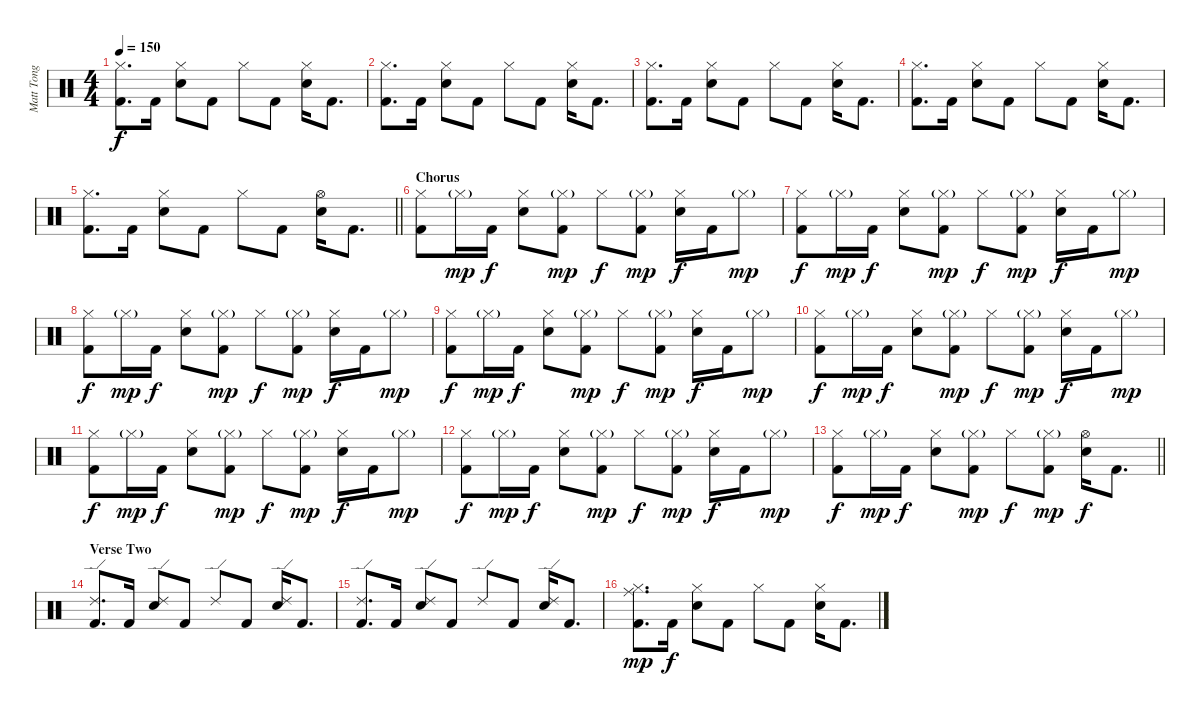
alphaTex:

\track ("Matt Tong" "Matt Tong") {instrument percussion}
\staff {score}
\articulation defaults
\ts (4 4)
\tempo 150
\clef neutral
\ks c
("Hi-Hat (closed)" "Kick (hit) 2").8{d dy f} "Kick (hit) 2".16 ("Hi-Hat (closed)" "Electric Snare (hit)").8 "Kick (hit) 2".8 "Hi-Hat (closed)".8 "Kick (hit) 2".8 ("Hi-Hat (closed)" "Electric Snare (hit)").16 "Kick (hit) 2".8{d} |
("Hi-Hat (closed)" "Kick (hit) 2").8{d} "Kick (hit) 2".16 ("Hi-Hat (closed)" "Electric Snare (hit)").8 "Kick (hit) 2".8 "Hi-Hat (closed)".8 "Kick (hit) 2".8 ("Hi-Hat (closed)" "Electric Snare (hit)").16 "Kick (hit) 2".8{d} |
("Hi-Hat (closed)" "Kick (hit) 2").8{d} "Kick (hit) 2".16 ("Hi-Hat (closed)" "Electric Snare (hit)").8 "Kick (hit) 2".8 "Hi-Hat (closed)".8 "Kick (hit) 2".8 ("Hi-Hat (closed)" "Electric Snare (hit)").16 "Kick (hit) 2".8{d} |
("Hi-Hat (closed)" "Kick (hit) 2").8{d} "Kick (hit) 2".16 ("Hi-Hat (closed)" "Electric Snare (hit)").8 "Kick (hit) 2".8 "Hi-Hat (closed)".8 "Kick (hit) 2".8 ("Hi-Hat (closed)" "Electric Snare (hit)").16 "Kick (hit) 2".8{d} |
\barLineRight lightlight
("Hi-Hat (closed)" "Kick (hit) 2").8{d} "Kick (hit) 2".16 ("Hi-Hat (closed)" "Electric Snare (hit)").8 "Kick (hit) 2".8 "Hi-Hat (closed)".8 "Kick (hit) 2".8 ("Hi-Hat (open)" "Electric Snare (hit)").16 "Kick (hit) 2".8{d} |
\section ("" "Chorus")
("Hi-Hat (closed)" "Kick (hit) 2").8 "Hi-Hat (closed)"{g}.16{dy mp} "Kick (hit) 2".16{dy f} ("Hi-Hat (closed)" "Electric Snare (hit)").8 ("Hi-Hat (closed)"{g} "Kick (hit) 2").8{dy mp} "Hi-Hat (closed)".8{dy f} ("Hi-Hat (closed)"{g} "Kick (hit) 2").8{dy mp} ("Hi-Hat (closed)" "Electric Snare (hit)").16{dy f} "Kick (hit) 2".16 "Hi-Hat (closed)"{g}.8{dy mp} |
("Hi-Hat (closed)" "Kick (hit) 2").8{dy f} "Hi-Hat (closed)"{g}.16{dy mp} "Kick (hit) 2".16{dy f} ("Hi-Hat (closed)" "Electric Snare (hit)").8 ("Hi-Hat (closed)"{g} "Kick (hit) 2").8{dy mp} "Hi-Hat (closed)".8{dy f} ("Hi-Hat (closed)"{g} "Kick (hit) 2").8{dy mp} ("Hi-Hat (closed)" "Electric Snare (hit)").16{dy f} "Kick (hit) 2".16 "Hi-Hat (closed)"{g}.8{dy mp} |
("Hi-Hat (closed)" "Kick (hit) 2").8{dy f} "Hi-Hat (closed)"{g}.16{dy mp} "Kick (hit) 2".16{dy f} ("Hi-Hat (closed)" "Electric Snare (hit)").8 ("Hi-Hat (closed)"{g} "Kick (hit) 2").8{dy mp} "Hi-Hat (closed)".8{dy f} ("Hi-Hat (closed)"{g} "Kick (hit) 2").8{dy mp} ("Hi-Hat (closed)" "Electric Snare (hit)").16{dy f} "Kick (hit) 2".16 "Hi-Hat (closed)"{g}.8{dy mp} |
("Hi-Hat (closed)" "Kick (hit) 2").8{dy f} "Hi-Hat (closed)"{g}.16{dy mp} "Kick (hit) 2".16{dy f} ("Hi-Hat (closed)" "Electric Snare (hit)").8 ("Hi-Hat (closed)"{g} "Kick (hit) 2").8{dy mp} "Hi-Hat (closed)".8{dy f} ("Hi-Hat (closed)"{g} "Kick (hit) 2").8{dy mp} ("Hi-Hat (closed)" "Electric Snare (hit)").16{dy f} "Kick (hit) 2".16 "Hi-Hat (closed)"{g}.8{dy mp} |
("Hi-Hat (closed)" "Kick (hit) 2").8{dy f} "Hi-Hat (closed)"{g}.16{dy mp} "Kick (hit) 2".16{dy f} ("Hi-Hat (closed)" "Electric Snare (hit)").8 ("Hi-Hat (closed)"{g} "Kick (hit) 2").8{dy mp} "Hi-Hat (closed)".8{dy f} ("Hi-Hat (closed)"{g} "Kick (hit) 2").8{dy mp} ("Hi-Hat (closed)" "Electric Snare (hit)").16{dy f} "Kick (hit) 2".16 "Hi-Hat (closed)"{g}.8{dy mp} |
("Hi-Hat (closed)" "Kick (hit) 2").8{dy f} "Hi-Hat (closed)"{g}.16{dy mp} "Kick (hit) 2".16{dy f} ("Hi-Hat (closed)" "Electric Snare (hit)").8 ("Hi-Hat (closed)"{g} "Kick (hit) 2").8{dy mp} "Hi-Hat (closed)".8{dy f} ("Hi-Hat (closed)"{g} "Kick (hit) 2").8{dy mp} ("Hi-Hat (closed)" "Electric Snare (hit)").16{dy f} "Kick (hit) 2".16 "Hi-Hat (closed)"{g}.8{dy mp} |
("Hi-Hat (closed)" "Kick (hit) 2").8{dy f} "Hi-Hat (closed)"{g}.16{dy mp} "Kick (hit) 2".16{dy f} ("Hi-Hat (closed)" "Electric Snare (hit)").8 ("Hi-Hat (closed)"{g} "Kick (hit) 2").8{dy mp} "Hi-Hat (closed)".8{dy f} ("Hi-Hat (closed)"{g} "Kick (hit) 2").8{dy mp} ("Hi-Hat (closed)" "Electric Snare (hit)").16{dy f} "Kick (hit) 2".16 "Hi-Hat (closed)"{g}.8{dy mp} |
\barLineRight lightlight
("Hi-Hat (closed)" "Kick (hit) 2").8{dy f} "Hi-Hat (closed)"{g}.16{dy mp} "Kick (hit) 2".16{dy f} ("Hi-Hat (closed)" "Electric Snare (hit)").8 ("Hi-Hat (closed)"{g} "Kick (hit) 2").8{dy mp} "Hi-Hat (closed)".8{dy f} ("Hi-Hat (closed)"{g} "Kick (hit) 2").8{dy mp} ("Hi-Hat (open)" "Electric Snare (hit)").16{dy f} "Kick (hit) 2".8{d} |
\section ("" "Verse Two")
("Ride (edge) 2" "Kick (hit) 2").8{d} "Kick (hit) 2".16 ("Ride (edge) 2" "Electric Snare (hit)").8 "Kick (hit) 2".8 "Ride (edge) 2".8 "Kick (hit) 2".8 ("Ride (edge) 2" "Electric Snare (hit)").16 "Kick (hit) 2".8{d} |
("Ride (edge) 2" "Kick (hit) 2").8{d} "Kick (hit) 2".16 ("Ride (edge) 2" "Electric Snare (hit)").8 "Kick (hit) 2".8 "Ride (edge) 2".8 "Kick (hit) 2".8 ("Ride (edge) 2" "Electric Snare (hit)").16 "Kick (hit) 2".8{d} |
("Ride (middle)" "Hi-Hat (closed)" "Kick (hit) 2").8{d dy mp} "Kick (hit) 2".16{dy f} ("Hi-Hat (closed)" "Electric Snare (hit)").8 "Kick (hit) 2".8 "Hi-Hat (closed)".8 "Kick (hit) 2".8 ("Hi-Hat (closed)" "Electric Snare (hit)").16 "Kick (hit) 2".8{d}
